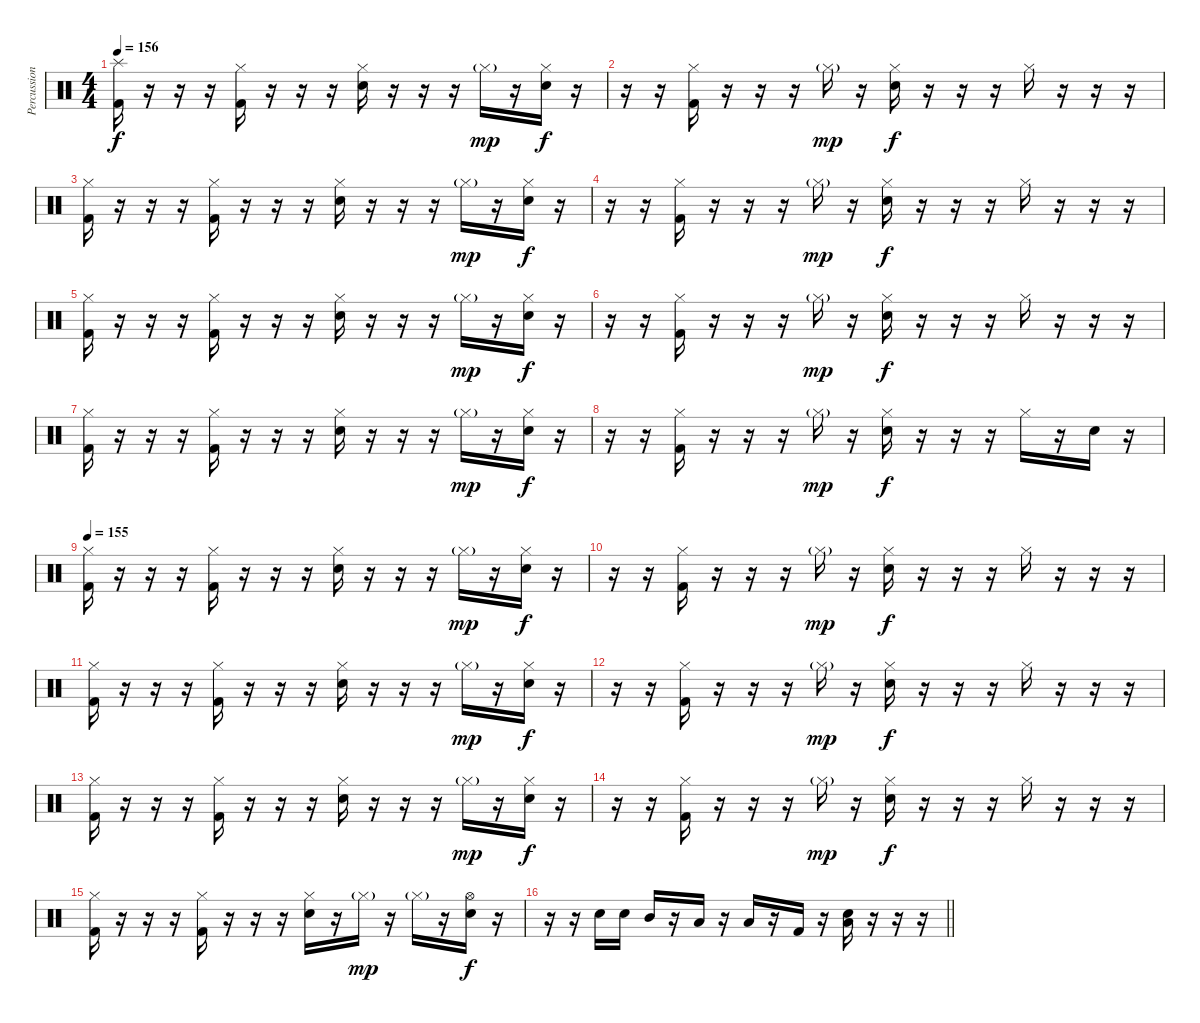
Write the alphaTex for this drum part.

\track ("Percussion" "Percussion") {instrument percussion}
\staff {score}
\articulation defaults
\ts (4 4)
\tempo 156
\clef neutral
\ks c
("Splash (hit)" "Kick (hit) 2").16{dy f} r.16 r.16 r.16 ("Hi-Hat (closed)" "Kick (hit) 2").16 r.16 r.16 r.16 ("Hi-Hat (closed)" "Electric Snare (hit)").16 r.16 r.16 r.16 "Hi-Hat (closed)"{g}.16{dy mp} r.16 ("Hi-Hat (closed)" "Electric Snare (hit)").16{dy f} r.16 |
r.16 r.16 ("Hi-Hat (closed)" "Kick (hit) 2").16 r.16 r.16 r.16 "Hi-Hat (closed)"{g}.16{dy mp} r.16 ("Hi-Hat (closed)" "Electric Snare (hit)").16{dy f} r.16 r.16 r.16 "Hi-Hat (closed)".16 r.16 r.16 r.16 |
("Hi-Hat (closed)" "Kick (hit) 2").16 r.16 r.16 r.16 ("Hi-Hat (closed)" "Kick (hit) 2").16 r.16 r.16 r.16 ("Hi-Hat (closed)" "Electric Snare (hit)").16 r.16 r.16 r.16 "Hi-Hat (closed)"{g}.16{dy mp} r.16 ("Hi-Hat (closed)" "Electric Snare (hit)").16{dy f} r.16 |
r.16 r.16 ("Hi-Hat (closed)" "Kick (hit) 2").16 r.16 r.16 r.16 "Hi-Hat (closed)"{g}.16{dy mp} r.16 ("Hi-Hat (closed)" "Electric Snare (hit)").16{dy f} r.16 r.16 r.16 "Hi-Hat (closed)".16 r.16 r.16 r.16 |
("Hi-Hat (closed)" "Kick (hit) 2").16 r.16 r.16 r.16 ("Hi-Hat (closed)" "Kick (hit) 2").16 r.16 r.16 r.16 ("Hi-Hat (closed)" "Electric Snare (hit)").16 r.16 r.16 r.16 "Hi-Hat (closed)"{g}.16{dy mp} r.16 ("Hi-Hat (closed)" "Electric Snare (hit)").16{dy f} r.16 |
r.16 r.16 ("Hi-Hat (closed)" "Kick (hit) 2").16 r.16 r.16 r.16 "Hi-Hat (closed)"{g}.16{dy mp} r.16 ("Hi-Hat (closed)" "Electric Snare (hit)").16{dy f} r.16 r.16 r.16 "Hi-Hat (closed)".16 r.16 r.16 r.16 |
("Hi-Hat (closed)" "Kick (hit) 2").16 r.16 r.16 r.16 ("Hi-Hat (closed)" "Kick (hit) 2").16 r.16 r.16 r.16 ("Hi-Hat (closed)" "Electric Snare (hit)").16 r.16 r.16 r.16 "Hi-Hat (closed)"{g}.16{dy mp} r.16 ("Hi-Hat (closed)" "Electric Snare (hit)").16{dy f} r.16 |
r.16 r.16 ("Hi-Hat (closed)" "Kick (hit) 2").16 r.16 r.16 r.16 "Hi-Hat (closed)"{g}.16{dy mp} r.16 ("Hi-Hat (closed)" "Electric Snare (hit)").16{dy f} r.16 r.16 r.16 "Hi-Hat (closed)".16 r.16 "Electric Snare (hit)".16 r.16 |
\tempo 155
("Hi-Hat (closed)" "Kick (hit) 2").16 r.16 r.16 r.16 ("Hi-Hat (closed)" "Kick (hit) 2").16 r.16 r.16 r.16 ("Hi-Hat (closed)" "Electric Snare (hit)").16 r.16 r.16 r.16 "Hi-Hat (closed)"{g}.16{dy mp} r.16 ("Hi-Hat (closed)" "Electric Snare (hit)").16{dy f} r.16 |
r.16 r.16 ("Hi-Hat (closed)" "Kick (hit) 2").16 r.16 r.16 r.16 "Hi-Hat (closed)"{g}.16{dy mp} r.16 ("Hi-Hat (closed)" "Electric Snare (hit)").16{dy f} r.16 r.16 r.16 "Hi-Hat (closed)".16 r.16 r.16 r.16 |
("Hi-Hat (closed)" "Kick (hit) 2").16 r.16 r.16 r.16 ("Hi-Hat (closed)" "Kick (hit) 2").16 r.16 r.16 r.16 ("Hi-Hat (closed)" "Electric Snare (hit)").16 r.16 r.16 r.16 "Hi-Hat (closed)"{g}.16{dy mp} r.16 ("Hi-Hat (closed)" "Electric Snare (hit)").16{dy f} r.16 |
r.16 r.16 ("Hi-Hat (closed)" "Kick (hit) 2").16 r.16 r.16 r.16 "Hi-Hat (closed)"{g}.16{dy mp} r.16 ("Hi-Hat (closed)" "Electric Snare (hit)").16{dy f} r.16 r.16 r.16 "Hi-Hat (closed)".16 r.16 r.16 r.16 |
("Hi-Hat (closed)" "Kick (hit) 2").16 r.16 r.16 r.16 ("Hi-Hat (closed)" "Kick (hit) 2").16 r.16 r.16 r.16 ("Hi-Hat (closed)" "Electric Snare (hit)").16 r.16 r.16 r.16 "Hi-Hat (closed)"{g}.16{dy mp} r.16 ("Hi-Hat (closed)" "Electric Snare (hit)").16{dy f} r.16 |
r.16 r.16 ("Hi-Hat (closed)" "Kick (hit) 2").16 r.16 r.16 r.16 "Hi-Hat (closed)"{g}.16{dy mp} r.16 ("Hi-Hat (closed)" "Electric Snare (hit)").16{dy f} r.16 r.16 r.16 "Hi-Hat (closed)".16 r.16 r.16 r.16 |
("Hi-Hat (closed)" "Kick (hit) 2").16 r.16 r.16 r.16 ("Hi-Hat (closed)" "Kick (hit) 2").16 r.16 r.16 r.16 ("Hi-Hat (closed)" "Electric Snare (hit)").16 r.16 "Hi-Hat (closed)"{g}.16{dy mp} r.16 "Hi-Hat (closed)"{g}.16 r.16 ("Hi-Hat (open)" "Electric Snare (hit)").16{dy f} r.16 |
\barLineRight lightlight
r.16 r.16 "Electric Snare (hit)".16 "Electric Snare (hit)".16 "Mid Tom (hit)".16 r.16 "Low Tom (hit)".16 r.16 "Low Tom (hit)".16 r.16 "Kick (hit) 2".16 r.16 ("Low Tom (hit)" "Electric Snare (hit)").16 r.16 r.16 r.16
